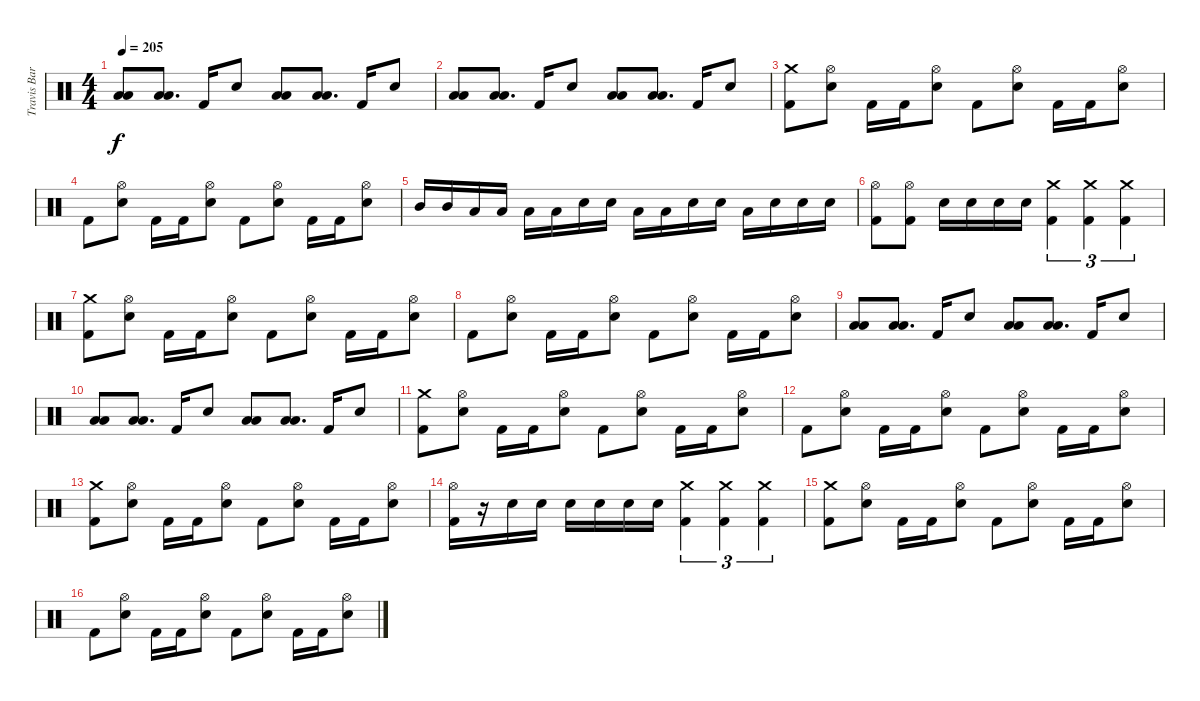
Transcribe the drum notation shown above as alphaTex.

\track ("Travis Barker (Drums)" "Travis Bar") {instrument percussion}
\staff {score}
\articulation defaults
\ts (4 4)
\tempo 205
\clef neutral
\ks c
("Low Tom (hit)" "Low Tom (hit)").8{dy f} ("Low Floor Tom (hit)" "Low Floor Tom (hit)").8{d} "Kick (hit) 2".16 "Electric Snare (hit)".8 ("Low Tom (hit)" "Low Tom (hit)").8 ("Low Floor Tom (hit)" "Low Floor Tom (hit)").8{d} "Kick (hit) 2".16 "Electric Snare (hit)".8 |
("Low Tom (hit)" "Low Tom (hit)").8 ("Low Floor Tom (hit)" "Low Floor Tom (hit)").8{d} "Kick (hit) 2".16 "Electric Snare (hit)".8 ("Low Tom (hit)" "Low Tom (hit)").8 ("Low Floor Tom (hit)" "Low Floor Tom (hit)").8{d} "Kick (hit) 2".16 "Electric Snare (hit)".8 |
("Crash medium (hit)" "Kick (hit) 2").8 ("Hi-Hat (open)" "Electric Snare (hit)").8 "Kick (hit) 2".16 "Kick (hit) 2".16 ("Hi-Hat (open)" "Electric Snare (hit)").8 "Kick (hit) 2".8 ("Hi-Hat (open)" "Electric Snare (hit)").8 "Kick (hit) 2".16 "Kick (hit) 2".16 ("Hi-Hat (open)" "Electric Snare (hit)").8 |
"Kick (hit) 2".8 ("Hi-Hat (open)" "Electric Snare (hit)").8 "Kick (hit) 2".16 "Kick (hit) 2".16 ("Hi-Hat (open)" "Electric Snare (hit)").8 "Kick (hit) 2".8 ("Hi-Hat (open)" "Electric Snare (hit)").8 "Kick (hit) 2".16 "Kick (hit) 2".16 ("Hi-Hat (open)" "Electric Snare (hit)").8 |
"Mid Tom (hit)".16 "Mid Tom (hit)".16 "Low Tom (hit)".16 "Low Tom (hit)".16 "Low Floor Tom (hit)".16 "Low Floor Tom (hit)".16 "Electric Snare (hit)".16 "Electric Snare (hit)".16 "Low Floor Tom (hit)".16 "Low Floor Tom (hit)".16 "Electric Snare (hit)".16 "Electric Snare (hit)".16 "Low Floor Tom (hit)".16 "Electric Snare (hit)".16 "Electric Snare (hit)".16 "Electric Snare (hit)".16 |
("Hi-Hat (open)" "Kick (hit) 2").8 ("Hi-Hat (open)" "Kick (hit) 2").8 "Electric Snare (hit)".16 "Electric Snare (hit)".16 "Electric Snare (hit)".16 "Electric Snare (hit)".16 ("Crash medium (hit)" "Kick (hit) 2").4{tu (3 2)} ("Crash medium (hit)" "Kick (hit) 2").4{tu (3 2)} ("Crash medium (hit)" "Kick (hit) 2").4{tu (3 2)} |
("Crash medium (hit)" "Kick (hit) 2").8 ("Hi-Hat (open)" "Electric Snare (hit)").8 "Kick (hit) 2".16 "Kick (hit) 2".16 ("Hi-Hat (open)" "Electric Snare (hit)").8 "Kick (hit) 2".8 ("Hi-Hat (open)" "Electric Snare (hit)").8 "Kick (hit) 2".16 "Kick (hit) 2".16 ("Hi-Hat (open)" "Electric Snare (hit)").8 |
"Kick (hit) 2".8 ("Hi-Hat (open)" "Electric Snare (hit)").8 "Kick (hit) 2".16 "Kick (hit) 2".16 ("Hi-Hat (open)" "Electric Snare (hit)").8 "Kick (hit) 2".8 ("Hi-Hat (open)" "Electric Snare (hit)").8 "Kick (hit) 2".16 "Kick (hit) 2".16 ("Hi-Hat (open)" "Electric Snare (hit)").8 |
("Low Tom (hit)" "Low Tom (hit)").8 ("Low Floor Tom (hit)" "Low Floor Tom (hit)").8{d} "Kick (hit) 2".16 "Electric Snare (hit)".8 ("Low Tom (hit)" "Low Tom (hit)").8 ("Low Floor Tom (hit)" "Low Floor Tom (hit)").8{d} "Kick (hit) 2".16 "Electric Snare (hit)".8 |
("Low Tom (hit)" "Low Tom (hit)").8 ("Low Floor Tom (hit)" "Low Floor Tom (hit)").8{d} "Kick (hit) 2".16 "Electric Snare (hit)".8 ("Low Tom (hit)" "Low Tom (hit)").8 ("Low Floor Tom (hit)" "Low Floor Tom (hit)").8{d} "Kick (hit) 2".16 "Electric Snare (hit)".8 |
("Crash medium (hit)" "Kick (hit) 2").8 ("Hi-Hat (open)" "Electric Snare (hit)").8 "Kick (hit) 2".16 "Kick (hit) 2".16 ("Hi-Hat (open)" "Electric Snare (hit)").8 "Kick (hit) 2".8 ("Hi-Hat (open)" "Electric Snare (hit)").8 "Kick (hit) 2".16 "Kick (hit) 2".16 ("Hi-Hat (open)" "Electric Snare (hit)").8 |
"Kick (hit) 2".8 ("Hi-Hat (open)" "Electric Snare (hit)").8 "Kick (hit) 2".16 "Kick (hit) 2".16 ("Hi-Hat (open)" "Electric Snare (hit)").8 "Kick (hit) 2".8 ("Hi-Hat (open)" "Electric Snare (hit)").8 "Kick (hit) 2".16 "Kick (hit) 2".16 ("Hi-Hat (open)" "Electric Snare (hit)").8 |
("Crash medium (hit)" "Kick (hit) 2").8 ("Hi-Hat (open)" "Electric Snare (hit)").8 "Kick (hit) 2".16 "Kick (hit) 2".16 ("Hi-Hat (open)" "Electric Snare (hit)").8 "Kick (hit) 2".8 ("Hi-Hat (open)" "Electric Snare (hit)").8 "Kick (hit) 2".16 "Kick (hit) 2".16 ("Hi-Hat (open)" "Electric Snare (hit)").8 |
("Hi-Hat (open)" "Kick (hit) 2").16 r.16 "Electric Snare (hit)".16 "Electric Snare (hit)".16 "Electric Snare (hit)".16 "Electric Snare (hit)".16 "Electric Snare (hit)".16 "Electric Snare (hit)".16 ("Crash medium (hit)" "Kick (hit) 2").4{tu (3 2)} ("Crash medium (hit)" "Kick (hit) 2").4{tu (3 2)} ("Crash medium (hit)" "Kick (hit) 2").4{tu (3 2)} |
("Crash medium (hit)" "Kick (hit) 2").8 ("Hi-Hat (open)" "Electric Snare (hit)").8 "Kick (hit) 2".16 "Kick (hit) 2".16 ("Hi-Hat (open)" "Electric Snare (hit)").8 "Kick (hit) 2".8 ("Hi-Hat (open)" "Electric Snare (hit)").8 "Kick (hit) 2".16 "Kick (hit) 2".16 ("Hi-Hat (open)" "Electric Snare (hit)").8 |
"Kick (hit) 2".8 ("Hi-Hat (open)" "Electric Snare (hit)").8 "Kick (hit) 2".16 "Kick (hit) 2".16 ("Hi-Hat (open)" "Electric Snare (hit)").8 "Kick (hit) 2".8 ("Hi-Hat (open)" "Electric Snare (hit)").8 "Kick (hit) 2".16 "Kick (hit) 2".16 ("Hi-Hat (open)" "Electric Snare (hit)").8
